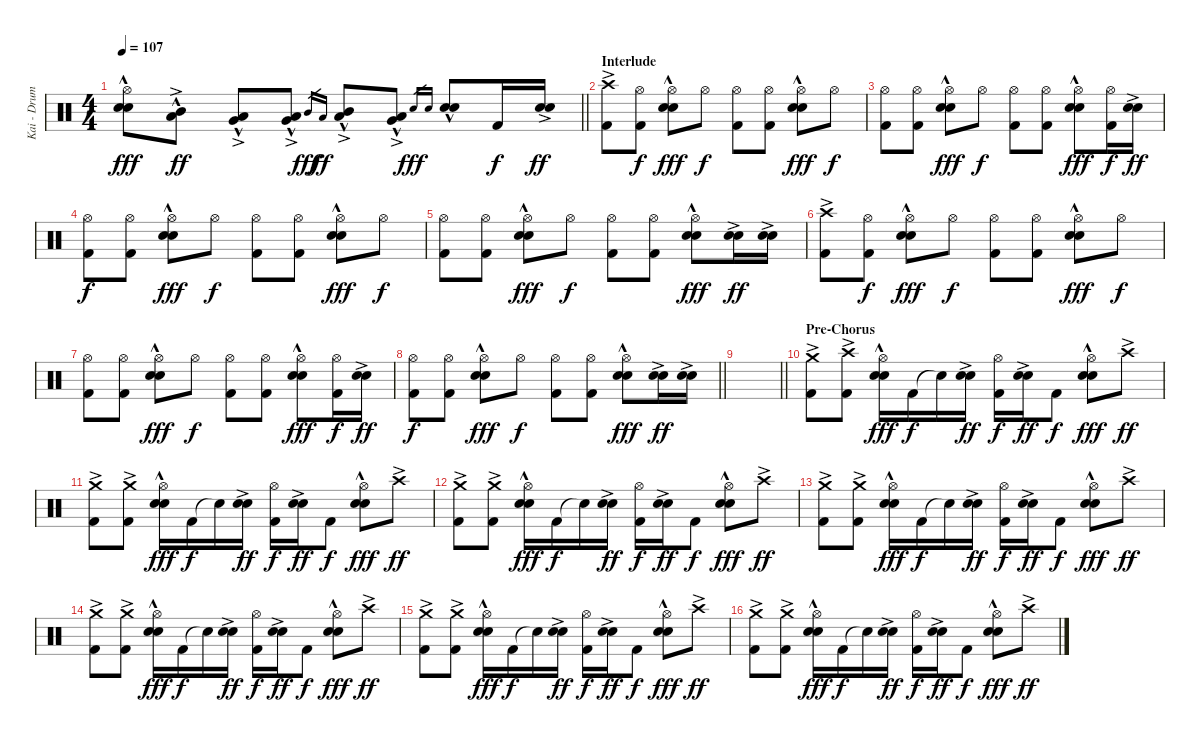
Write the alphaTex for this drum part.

\track ("Kai - Drums" "Kai - Drum") {instrument percussion}
\staff {score}
\articulation defaults
\ts (4 4)
\tempo 107
\clef neutral
\barLineRight lightlight
\ks c
("Hi-Hat (open)" "Electric Snare (hit)"{hac} "Snare (hit) 2"{hac}).8{dy fff} ("Mid Tom (hit)"{hac} "Low Tom (hit)"{ac}).8{dy ff} ("Low Tom (hit)"{hac} "Very Low Tom (hit)"{ac}).8 ("Very Low Tom (hit)"{hac} "Low Floor Tom (hit)"{ac}).8 "Mid Tom (hit)".16{gr dy fff} "Low Tom (hit)".16{gr dy ff} ("Mid Tom (hit)"{hac} "Low Tom (hit)"{ac}).8 ("Very Low Tom (hit)"{hac} "Low Floor Tom (hit)"{ac}).8 "Electric Snare (hit)".16{gr dy fff} "Snare (hit) 2".16{gr} ("Electric Snare (hit)"{hac} "Snare (hit) 2"{hac}).8 "Kick (hit) 2".16{dy f} ("Electric Snare (hit)"{ac} "Snare (hit) 2"{ac}).16{dy ff} |
\section ("" "Interlude")
("Crash high (hit)"{ac} "Kick (hit) 2").8 ("Hi-Hat (open)" "Kick (hit) 2").8{dy f} ("Hi-Hat (open)" "Electric Snare (hit)"{hac} "Snare (hit) 2"{hac}).8{dy fff} "Hi-Hat (open)".8{dy f} ("Hi-Hat (open)" "Kick (hit) 2").8 ("Hi-Hat (open)" "Kick (hit) 2").8 ("Hi-Hat (open)" "Electric Snare (hit)"{hac} "Snare (hit) 2"{hac}).8{dy fff} "Hi-Hat (open)".8{dy f} |
("Hi-Hat (open)" "Kick (hit) 2").8 ("Hi-Hat (open)" "Kick (hit) 2").8 ("Hi-Hat (open)" "Electric Snare (hit)"{hac} "Snare (hit) 2"{hac}).8{dy fff} "Hi-Hat (open)".8{dy f} ("Hi-Hat (open)" "Kick (hit) 2").8 ("Hi-Hat (open)" "Kick (hit) 2").8 ("Hi-Hat (open)" "Electric Snare (hit)"{hac} "Snare (hit) 2"{hac}).8{dy fff} ("Hi-Hat (open)" "Kick (hit) 2").16{dy f} ("Electric Snare (hit)"{ac} "Snare (hit) 2"{ac}).16{dy ff} |
("Hi-Hat (open)" "Kick (hit) 2").8{dy f} ("Hi-Hat (open)" "Kick (hit) 2").8 ("Hi-Hat (open)" "Electric Snare (hit)"{hac} "Snare (hit) 2"{hac}).8{dy fff} "Hi-Hat (open)".8{dy f} ("Hi-Hat (open)" "Kick (hit) 2").8 ("Hi-Hat (open)" "Kick (hit) 2").8 ("Hi-Hat (open)" "Electric Snare (hit)"{hac} "Snare (hit) 2"{hac}).8{dy fff} "Hi-Hat (open)".8{dy f} |
("Hi-Hat (open)" "Kick (hit) 2").8 ("Hi-Hat (open)" "Kick (hit) 2").8 ("Hi-Hat (open)" "Electric Snare (hit)"{hac} "Snare (hit) 2"{hac}).8{dy fff} "Hi-Hat (open)".8{dy f} ("Hi-Hat (open)" "Kick (hit) 2").8 ("Hi-Hat (open)" "Kick (hit) 2").8 ("Hi-Hat (open)" "Electric Snare (hit)"{hac} "Snare (hit) 2"{hac}).8{dy fff} ("Electric Snare (hit)"{ac} "Snare (hit) 2"{ac}).16{dy ff} ("Electric Snare (hit)"{ac} "Snare (hit) 2"{ac}).16 |
("Crash high (hit)"{ac} "Kick (hit) 2").8 ("Hi-Hat (open)" "Kick (hit) 2").8{dy f} ("Hi-Hat (open)" "Electric Snare (hit)"{hac} "Snare (hit) 2"{hac}).8{dy fff} "Hi-Hat (open)".8{dy f} ("Hi-Hat (open)" "Kick (hit) 2").8 ("Hi-Hat (open)" "Kick (hit) 2").8 ("Hi-Hat (open)" "Electric Snare (hit)"{hac} "Snare (hit) 2"{hac}).8{dy fff} "Hi-Hat (open)".8{dy f} |
("Hi-Hat (open)" "Kick (hit) 2").8 ("Hi-Hat (open)" "Kick (hit) 2").8 ("Hi-Hat (open)" "Electric Snare (hit)"{hac} "Snare (hit) 2"{hac}).8{dy fff} "Hi-Hat (open)".8{dy f} ("Hi-Hat (open)" "Kick (hit) 2").8 ("Hi-Hat (open)" "Kick (hit) 2").8 ("Hi-Hat (open)" "Electric Snare (hit)"{hac} "Snare (hit) 2"{hac}).8{dy fff} ("Hi-Hat (open)" "Kick (hit) 2").16{dy f} ("Electric Snare (hit)"{ac} "Snare (hit) 2"{ac}).16{dy ff} |
\barLineRight lightlight
("Hi-Hat (open)" "Kick (hit) 2").8{dy f} ("Hi-Hat (open)" "Kick (hit) 2").8 ("Hi-Hat (open)" "Electric Snare (hit)"{hac} "Snare (hit) 2"{hac}).8{dy fff} "Hi-Hat (open)".8{dy f} ("Hi-Hat (open)" "Kick (hit) 2").8 ("Hi-Hat (open)" "Kick (hit) 2").8 ("Hi-Hat (open)" "Electric Snare (hit)"{hac} "Snare (hit) 2"{hac}).8{dy fff} ("Electric Snare (hit)"{ac} "Snare (hit) 2"{ac}).16{dy ff} ("Electric Snare (hit)"{ac} "Snare (hit) 2"{ac}).16 |
\barLineRight lightlight
|
\section ("" "Pre-Chorus")
("Crash medium (hit)"{ac} "Kick (hit) 2").8 ("Crash high (hit)"{ac} "Kick (hit) 2").8 ("Hi-Hat (open)" "Electric Snare (hit)"{hac} "Snare (hit) 2"{hac}).16{dy fff} "Kick (hit) 2".16{dy f} "Snare (hit)"{t}.16 ("Electric Snare (hit)"{ac} "Snare (hit) 2"{ac}).16{dy ff} ("Hi-Hat (open)" "Kick (hit) 2").16{dy f} ("Electric Snare (hit)"{ac} "Snare (hit) 2"{ac}).16{dy ff} "Kick (hit) 2".8{dy f} ("Hi-Hat (open)" "Electric Snare (hit)"{hac} "Snare (hit) 2"{hac}).8{dy fff} "Crash high (hit)"{ac}.8{dy ff} |
("Crash medium (hit)"{ac} "Kick (hit) 2").8 ("Crash medium (hit)"{ac} "Kick (hit) 2").8 ("Hi-Hat (open)" "Electric Snare (hit)"{hac} "Snare (hit) 2"{hac}).16{dy fff} "Kick (hit) 2".16{dy f} "Snare (hit)"{t}.16 ("Electric Snare (hit)"{ac} "Snare (hit) 2"{ac}).16{dy ff} ("Hi-Hat (open)" "Kick (hit) 2").16{dy f} ("Electric Snare (hit)"{ac} "Snare (hit) 2"{ac}).16{dy ff} "Kick (hit) 2".8{dy f} ("Hi-Hat (open)" "Electric Snare (hit)"{hac} "Snare (hit) 2"{hac}).8{dy fff} "Crash high (hit)"{ac}.8{dy ff} |
("Crash medium (hit)"{ac} "Kick (hit) 2").8 ("Crash medium (hit)"{ac} "Kick (hit) 2").8 ("Hi-Hat (open)" "Electric Snare (hit)"{hac} "Snare (hit) 2"{hac}).16{dy fff} "Kick (hit) 2".16{dy f} "Snare (hit)"{t}.16 ("Electric Snare (hit)"{ac} "Snare (hit) 2"{ac}).16{dy ff} ("Hi-Hat (open)" "Kick (hit) 2").16{dy f} ("Electric Snare (hit)"{ac} "Snare (hit) 2"{ac}).16{dy ff} "Kick (hit) 2".8{dy f} ("Hi-Hat (open)" "Electric Snare (hit)"{hac} "Snare (hit) 2"{hac}).8{dy fff} "Crash high (hit)"{ac}.8{dy ff} |
("Crash medium (hit)"{ac} "Kick (hit) 2").8 ("Crash medium (hit)"{ac} "Kick (hit) 2").8 ("Hi-Hat (open)" "Electric Snare (hit)"{hac} "Snare (hit) 2"{hac}).16{dy fff} "Kick (hit) 2".16{dy f} "Snare (hit)"{t}.16 ("Electric Snare (hit)"{ac} "Snare (hit) 2"{ac}).16{dy ff} ("Hi-Hat (open)" "Kick (hit) 2").16{dy f} ("Electric Snare (hit)"{ac} "Snare (hit) 2"{ac}).16{dy ff} "Kick (hit) 2".8{dy f} ("Hi-Hat (open)" "Electric Snare (hit)"{hac} "Snare (hit) 2"{hac}).8{dy fff} "Crash high (hit)"{ac}.8{dy ff} |
("Crash medium (hit)"{ac} "Kick (hit) 2").8 ("Crash medium (hit)"{ac} "Kick (hit) 2").8 ("Hi-Hat (open)" "Electric Snare (hit)"{hac} "Snare (hit) 2"{hac}).16{dy fff} "Kick (hit) 2".16{dy f} "Snare (hit)"{t}.16 ("Electric Snare (hit)"{ac} "Snare (hit) 2"{ac}).16{dy ff} ("Hi-Hat (open)" "Kick (hit) 2").16{dy f} ("Electric Snare (hit)"{ac} "Snare (hit) 2"{ac}).16{dy ff} "Kick (hit) 2".8{dy f} ("Hi-Hat (open)" "Electric Snare (hit)"{hac} "Snare (hit) 2"{hac}).8{dy fff} "Crash high (hit)"{ac}.8{dy ff} |
("Crash medium (hit)"{ac} "Kick (hit) 2").8 ("Crash medium (hit)"{ac} "Kick (hit) 2").8 ("Hi-Hat (open)" "Electric Snare (hit)"{hac} "Snare (hit) 2"{hac}).16{dy fff} "Kick (hit) 2".16{dy f} "Snare (hit)"{t}.16 ("Electric Snare (hit)"{ac} "Snare (hit) 2"{ac}).16{dy ff} ("Hi-Hat (open)" "Kick (hit) 2").16{dy f} ("Electric Snare (hit)"{ac} "Snare (hit) 2"{ac}).16{dy ff} "Kick (hit) 2".8{dy f} ("Hi-Hat (open)" "Electric Snare (hit)"{hac} "Snare (hit) 2"{hac}).8{dy fff} "Crash high (hit)"{ac}.8{dy ff} |
("Crash medium (hit)"{ac} "Kick (hit) 2").8 ("Crash medium (hit)"{ac} "Kick (hit) 2").8 ("Hi-Hat (open)" "Electric Snare (hit)"{hac} "Snare (hit) 2"{hac}).16{dy fff} "Kick (hit) 2".16{dy f} "Snare (hit)"{t}.16 ("Electric Snare (hit)"{ac} "Snare (hit) 2"{ac}).16{dy ff} ("Hi-Hat (open)" "Kick (hit) 2").16{dy f} ("Electric Snare (hit)"{ac} "Snare (hit) 2"{ac}).16{dy ff} "Kick (hit) 2".8{dy f} ("Hi-Hat (open)" "Electric Snare (hit)"{hac} "Snare (hit) 2"{hac}).8{dy fff} "Crash high (hit)"{ac}.8{dy ff}
